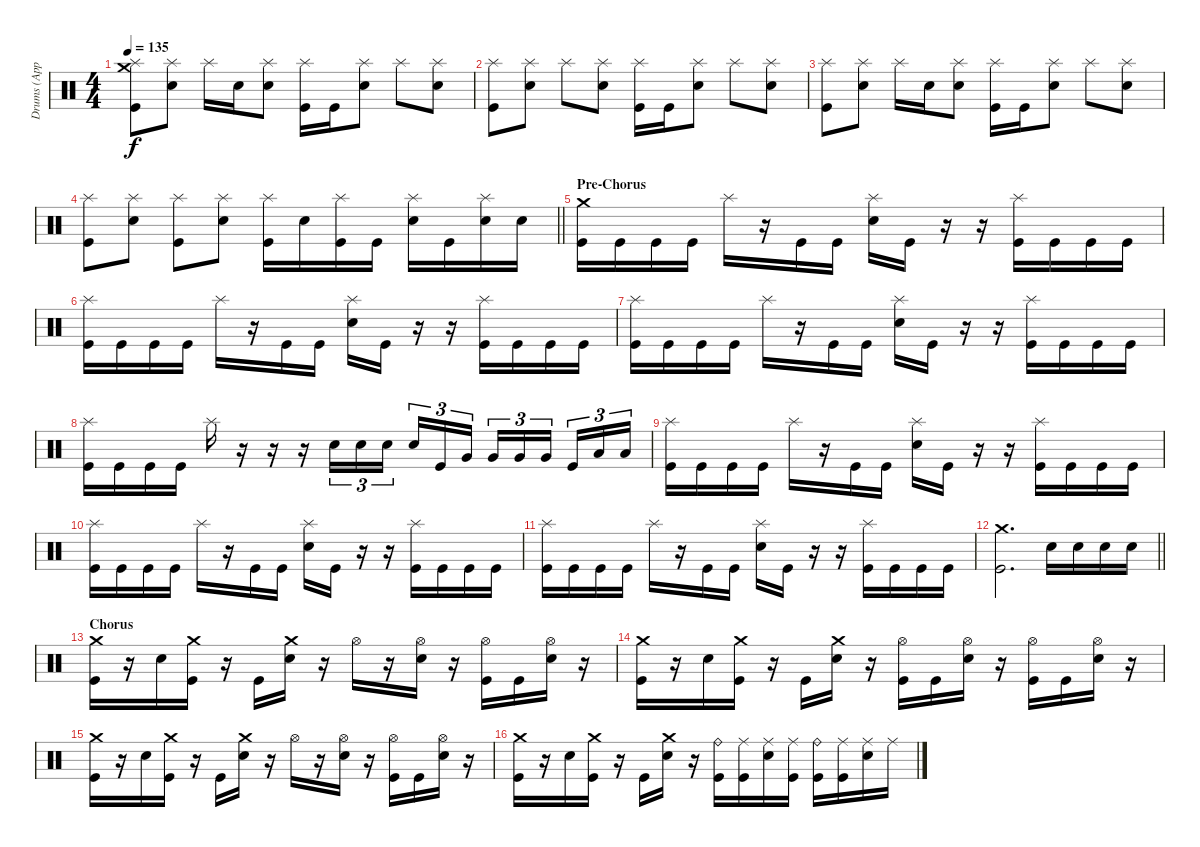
\track ("Drums (Approx.)" "Drums (App") {instrument percussion}
\staff {score}
\articulation defaults
\ts (4 4)
\tempo 135
\clef neutral
\ks c
("Crash medium (hit)" "Splash (hit)" "Kick (hit)").8{dy f} ("Splash (hit)" "Electric Snare (hit)").8 "Splash (hit)".16 "Electric Snare (hit)".16 ("Splash (hit)" "Electric Snare (hit)").8 ("Splash (hit)" "Kick (hit)").16 "Kick (hit)".16 ("Splash (hit)" "Electric Snare (hit)").8 "Splash (hit)".8 ("Splash (hit)" "Electric Snare (hit)").8 |
("Splash (hit)" "Kick (hit)").8 ("Splash (hit)" "Electric Snare (hit)").8 "Splash (hit)".8 ("Splash (hit)" "Electric Snare (hit)").8 ("Splash (hit)" "Kick (hit)").16 "Kick (hit)".16 ("Splash (hit)" "Electric Snare (hit)").8 "Splash (hit)".8 ("Splash (hit)" "Electric Snare (hit)").8 |
("Splash (hit)" "Kick (hit)").8 ("Splash (hit)" "Electric Snare (hit)").8 "Splash (hit)".16 "Electric Snare (hit)".16 ("Splash (hit)" "Electric Snare (hit)").8 ("Splash (hit)" "Kick (hit)").16 "Kick (hit)".16 ("Splash (hit)" "Electric Snare (hit)").8 "Splash (hit)".8 ("Splash (hit)" "Electric Snare (hit)").8 |
\barLineRight lightlight
("Splash (hit)" "Kick (hit)").8 ("Splash (hit)" "Electric Snare (hit)").8 ("Splash (hit)" "Kick (hit)").8 ("Splash (hit)" "Electric Snare (hit)").8 ("Splash (hit)" "Kick (hit)").16 "Electric Snare (hit)".16 ("Splash (hit)" "Kick (hit)").16 "Kick (hit)".16 ("Splash (hit)" "Electric Snare (hit)").16 "Kick (hit)".16 ("Splash (hit)" "Electric Snare (hit)").16 "Electric Snare (hit)".16 |
\section ("" "Pre-Chorus")
("Crash medium (hit)" "Kick (hit)").16 "Kick (hit)".16 "Kick (hit)".16 "Kick (hit)".16 "Splash (hit)".16 r.16 "Kick (hit)".16 "Kick (hit)".16 ("Splash (hit)" "Electric Snare (hit)").16 "Kick (hit)".16 r.16 r.16 ("Splash (hit)" "Kick (hit)").16 "Kick (hit)".16 "Kick (hit)".16 "Kick (hit)".16 |
("Splash (hit)" "Kick (hit)").16 "Kick (hit)".16 "Kick (hit)".16 "Kick (hit)".16 "Splash (hit)".16 r.16 "Kick (hit)".16 "Kick (hit)".16 ("Splash (hit)" "Electric Snare (hit)").16 "Kick (hit)".16 r.16 r.16 ("Splash (hit)" "Kick (hit)").16 "Kick (hit)".16 "Kick (hit)".16 "Kick (hit)".16 |
("Splash (hit)" "Kick (hit)").16 "Kick (hit)".16 "Kick (hit)".16 "Kick (hit)".16 "Splash (hit)".16 r.16 "Kick (hit)".16 "Kick (hit)".16 ("Splash (hit)" "Electric Snare (hit)").16 "Kick (hit)".16 r.16 r.16 ("Splash (hit)" "Kick (hit)").16 "Kick (hit)".16 "Kick (hit)".16 "Kick (hit)".16 |
("Splash (hit)" "Kick (hit)").16 "Kick (hit)".16 "Kick (hit)".16 "Kick (hit)".16 "Splash (hit)".16 r.16 r.16 r.16 "Electric Snare (hit)".16{tu (3 2)} "Electric Snare (hit)".16{tu (3 2)} "Electric Snare (hit)".16{tu (3 2) beam splitsecondary} "Electric Snare (hit)".16{tu (3 2)} "Kick (hit)".16{tu (3 2)} "Very Low Tom (hit)".16{tu (3 2)} "Very Low Tom (hit)".16{tu (3 2)} "Very Low Tom (hit)".16{tu (3 2)} "Very Low Tom (hit)".16{tu (3 2) beam splitsecondary} "Kick (hit)".16{tu (3 2)} "Low Floor Tom (hit)".16{tu (3 2)} "Low Floor Tom (hit)".16{tu (3 2)} |
("Splash (hit)" "Kick (hit)").16 "Kick (hit)".16 "Kick (hit)".16 "Kick (hit)".16 "Splash (hit)".16 r.16 "Kick (hit)".16 "Kick (hit)".16 ("Splash (hit)" "Electric Snare (hit)").16 "Kick (hit)".16 r.16 r.16 ("Splash (hit)" "Kick (hit)").16 "Kick (hit)".16 "Kick (hit)".16 "Kick (hit)".16 |
("Splash (hit)" "Kick (hit)").16 "Kick (hit)".16 "Kick (hit)".16 "Kick (hit)".16 "Splash (hit)".16 r.16 "Kick (hit)".16 "Kick (hit)".16 ("Splash (hit)" "Electric Snare (hit)").16 "Kick (hit)".16 r.16 r.16 ("Splash (hit)" "Kick (hit)").16 "Kick (hit)".16 "Kick (hit)".16 "Kick (hit)".16 |
("Splash (hit)" "Kick (hit)").16 "Kick (hit)".16 "Kick (hit)".16 "Kick (hit)".16 "Splash (hit)".16 r.16 "Kick (hit)".16 "Kick (hit)".16 ("Splash (hit)" "Electric Snare (hit)").16 "Kick (hit)".16 r.16 r.16 ("Splash (hit)" "Kick (hit)").16 "Kick (hit)".16 "Kick (hit)".16 "Kick (hit)".16 |
\barLineRight lightlight
("Crash medium (hit)" "Kick (hit)").2{d} "Electric Snare (hit)".16 "Electric Snare (hit)".16 "Electric Snare (hit)".16 "Electric Snare (hit)".16 |
\section ("" "Chorus")
("Crash medium (hit)" "Kick (hit)").16 r.16 "Electric Snare (hit)".16 ("Crash medium (hit)" "Kick (hit)").16 r.16 "Kick (hit)".16 ("Crash medium (hit)" "Electric Snare (hit)").16 r.16 "Hi-Hat (open)".16 r.16 ("Hi-Hat (open)" "Electric Snare (hit)").16 r.16 ("Hi-Hat (open)" "Kick (hit)").16 "Kick (hit)".16 ("Hi-Hat (open)" "Electric Snare (hit)").16 r.16 |
("Crash medium (hit)" "Kick (hit)").16 r.16 "Electric Snare (hit)".16 ("Crash medium (hit)" "Kick (hit)").16 r.16 "Kick (hit)".16 ("Crash medium (hit)" "Electric Snare (hit)").16 r.16 ("Hi-Hat (open)" "Kick (hit)").16 "Kick (hit)".16 ("Hi-Hat (open)" "Electric Snare (hit)").16 r.16 ("Hi-Hat (open)" "Kick (hit)").16 "Kick (hit)".16 ("Hi-Hat (open)" "Electric Snare (hit)").16 r.16 |
("Crash medium (hit)" "Kick (hit)").16 r.16 "Electric Snare (hit)".16 ("Crash medium (hit)" "Kick (hit)").16 r.16 "Kick (hit)".16 ("Crash medium (hit)" "Electric Snare (hit)").16 r.16 "Hi-Hat (open)".16 r.16 ("Hi-Hat (open)" "Electric Snare (hit)").16 r.16 ("Hi-Hat (open)" "Kick (hit)").16 "Kick (hit)".16 ("Hi-Hat (open)" "Electric Snare (hit)").16 r.16 |
("Crash medium (hit)" "Kick (hit)").16 r.16 "Electric Snare (hit)".16 ("Crash medium (hit)" "Kick (hit)").16 r.16 "Kick (hit)".16 ("Crash medium (hit)" "Electric Snare (hit)").16 r.16 ("Ride (bell)" "Kick (hit)").16 ("Ride (middle)" "Kick (hit)").16 ("Ride (middle)" "Electric Snare (hit)").16 ("Ride (middle)" "Kick (hit)").16 ("Ride (bell)" "Kick (hit)").16 ("Ride (middle)" "Kick (hit)").16 ("Ride (middle)" "Electric Snare (hit)").16 "Ride (middle)".16
